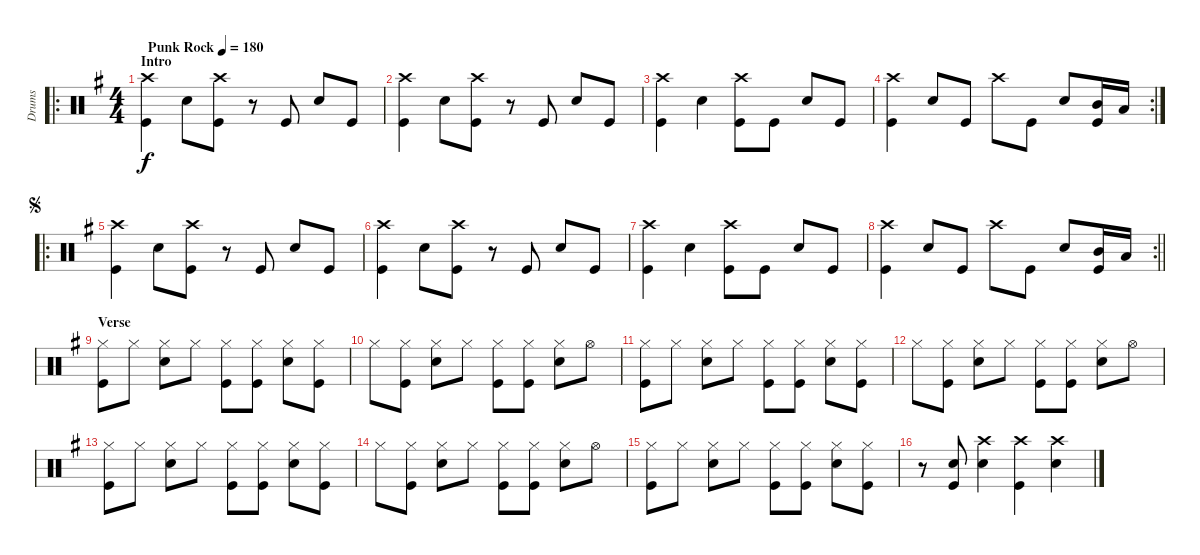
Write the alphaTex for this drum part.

\track ("Drums" "Drums") {instrument percussion}
\staff {score}
\articulation defaults
\ro
\ts (4 4)
\section ("" "Intro")
\tempo (180 "Punk Rock")
\clef neutral
\ks g
("Crash high (hit)" "Kick (hit)").4{dy f} "Electric Snare (hit)".8 ("Crash high (hit)" "Kick (hit)").8 r.8 "Kick (hit)".8 "Electric Snare (hit)".8 "Kick (hit)".8 |
("Crash high (hit)" "Kick (hit)").4 "Electric Snare (hit)".8 ("Crash high (hit)" "Kick (hit)").8 r.8 "Kick (hit)".8 "Electric Snare (hit)".8 "Kick (hit)".8 |
("Crash high (hit)" "Kick (hit)").4 "Electric Snare (hit)".4 ("Crash high (hit)" "Kick (hit)").8 "Kick (hit)".8 "Electric Snare (hit)".8 "Kick (hit)".8 |
\rc 2
("Crash high (hit)" "Kick (hit)").4 "Electric Snare (hit)".8 "Kick (hit)".8 "Crash high (hit)".8 "Kick (hit)".8 "Electric Snare (hit)".8 ("Kick (hit)" "Mid Tom (hit)").16 "Low Tom (hit)".16 |
\ro
\jump segno
("Crash high (hit)" "Kick (hit)").4 "Electric Snare (hit)".8 ("Crash high (hit)" "Kick (hit)").8 r.8 "Kick (hit)".8 "Electric Snare (hit)".8 "Kick (hit)".8 |
("Crash high (hit)" "Kick (hit)").4 "Electric Snare (hit)".8 ("Crash high (hit)" "Kick (hit)").8 r.8 "Kick (hit)".8 "Electric Snare (hit)".8 "Kick (hit)".8 |
("Crash high (hit)" "Kick (hit)").4 "Electric Snare (hit)".4 ("Crash high (hit)" "Kick (hit)").8 "Kick (hit)".8 "Electric Snare (hit)".8 "Kick (hit)".8 |
\rc 2
\barLineRight lightlight
("Crash high (hit)" "Kick (hit)").4 "Electric Snare (hit)".8 "Kick (hit)".8 "Crash high (hit)".8 "Kick (hit)".8 "Electric Snare (hit)".8 ("Kick (hit)" "Mid Tom (hit)").16 "Low Tom (hit)".16 |
\section ("" "Verse")
("Hi-Hat (closed)" "Kick (hit)").8 "Hi-Hat (closed)".8 ("Hi-Hat (closed)" "Electric Snare (hit)").8 "Hi-Hat (closed)".8 ("Hi-Hat (closed)" "Kick (hit)").8 ("Hi-Hat (closed)" "Kick (hit)").8 ("Hi-Hat (closed)" "Electric Snare (hit)").8 ("Hi-Hat (closed)" "Kick (hit)").8 |
"Hi-Hat (closed)".8 ("Hi-Hat (closed)" "Kick (hit)").8 ("Hi-Hat (closed)" "Electric Snare (hit)").8 "Hi-Hat (closed)".8 ("Hi-Hat (closed)" "Kick (hit)").8 ("Hi-Hat (closed)" "Kick (hit)").8 ("Hi-Hat (closed)" "Electric Snare (hit)").8 "Hi-Hat (open)".8 |
("Hi-Hat (closed)" "Kick (hit)").8 "Hi-Hat (closed)".8 ("Hi-Hat (closed)" "Electric Snare (hit)").8 "Hi-Hat (closed)".8 ("Hi-Hat (closed)" "Kick (hit)").8 ("Hi-Hat (closed)" "Kick (hit)").8 ("Hi-Hat (closed)" "Electric Snare (hit)").8 ("Hi-Hat (closed)" "Kick (hit)").8 |
"Hi-Hat (closed)".8 ("Hi-Hat (closed)" "Kick (hit)").8 ("Hi-Hat (closed)" "Electric Snare (hit)").8 "Hi-Hat (closed)".8 ("Hi-Hat (closed)" "Kick (hit)").8 ("Hi-Hat (closed)" "Kick (hit)").8 ("Hi-Hat (closed)" "Electric Snare (hit)").8 "Hi-Hat (open)".8 |
("Hi-Hat (closed)" "Kick (hit)").8 "Hi-Hat (closed)".8 ("Hi-Hat (closed)" "Electric Snare (hit)").8 "Hi-Hat (closed)".8 ("Hi-Hat (closed)" "Kick (hit)").8 ("Hi-Hat (closed)" "Kick (hit)").8 ("Hi-Hat (closed)" "Electric Snare (hit)").8 ("Hi-Hat (closed)" "Kick (hit)").8 |
"Hi-Hat (closed)".8 ("Hi-Hat (closed)" "Kick (hit)").8 ("Hi-Hat (closed)" "Electric Snare (hit)").8 "Hi-Hat (closed)".8 ("Hi-Hat (closed)" "Kick (hit)").8 ("Hi-Hat (closed)" "Kick (hit)").8 ("Hi-Hat (closed)" "Electric Snare (hit)").8 "Hi-Hat (open)".8 |
("Hi-Hat (closed)" "Kick (hit)").8 "Hi-Hat (closed)".8 ("Hi-Hat (closed)" "Electric Snare (hit)").8 "Hi-Hat (closed)".8 ("Hi-Hat (closed)" "Kick (hit)").8 ("Hi-Hat (closed)" "Kick (hit)").8 ("Hi-Hat (closed)" "Electric Snare (hit)").8 ("Hi-Hat (closed)" "Kick (hit)").8 |
r.8 ("Electric Snare (hit)" "Kick (hit)").8 ("Crash high (hit)" "Electric Snare (hit)").4 ("Crash high (hit)" "Kick (hit)").4 ("Crash high (hit)" "Electric Snare (hit)").4
